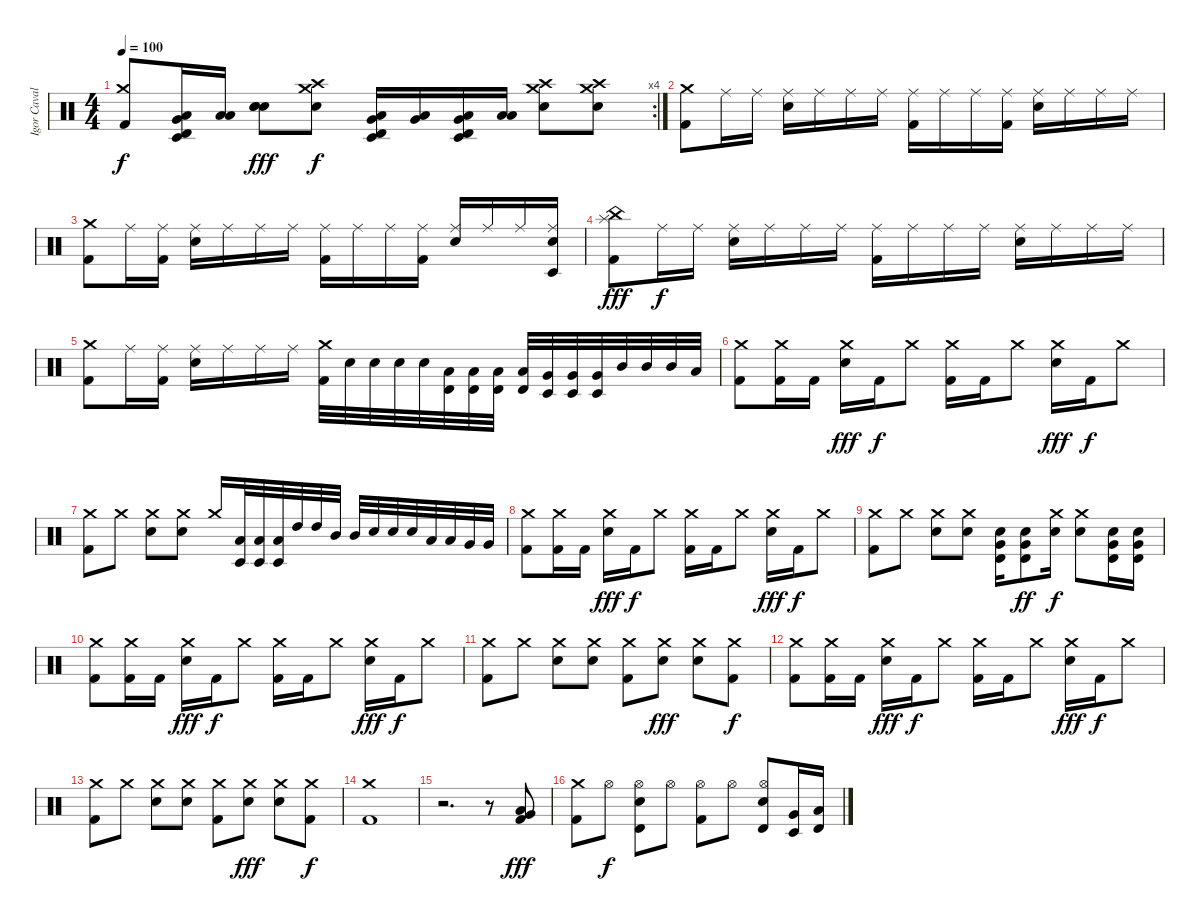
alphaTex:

\track ("Igor Cavalera" "Igor Caval") {instrument percussion}
\staff {score}
\articulation defaults
\rc 4
\ts (4 4)
\tempo 100
\clef neutral
\ks c
("Kick (hit) 2" "Crash medium (hit)").8{dy f} ("Timbale low (hit)" "Timbale high (hit)" "Low Tom (hit)" "Very Low Tom (hit)").16 ("Low Tom (hit)" "Low Tom (hit)").16 ("Electric Snare (hit)" "Electric Snare (hit)" "Electric Snare (hit)").8{dy fff} ("Electric Snare (hit)" "Crash medium (hit)" "Crash high (hit)").8{dy f} ("Timbale low (hit)" "Timbale high (hit)" "Low Tom (hit)" "Very Low Tom (hit)").16 ("Low Tom (hit)" "Very Low Tom (hit)").16 ("Timbale low (hit)" "Timbale high (hit)" "Low Tom (hit)" "Very Low Tom (hit)").16 ("Low Tom (hit)" "Low Tom (hit)").16 ("Electric Snare (hit)" "Crash medium (hit)" "Crash high (hit)").8 ("Electric Snare (hit)" "Crash medium (hit)" "Crash high (hit)").8 |
("Kick (hit) 2" "Crash medium (hit)").8 "Ride (middle)".16 "Ride (middle)".16 ("Electric Snare (hit)" "Ride (middle)").16 "Ride (middle)".16 "Ride (middle)".16 "Ride (middle)".16 ("Kick (hit) 2" "Ride (middle)").16 "Ride (middle)".16 "Ride (middle)".16 ("Kick (hit) 2" "Ride (middle)").16 ("Electric Snare (hit)" "Ride (middle)").16 "Ride (middle)".16 "Ride (middle)".16 "Ride (middle)".16 |
("Kick (hit) 2" "Crash medium (hit)").8 "Ride (middle)".16 ("Kick (hit) 2" "Ride (middle)").16 ("Electric Snare (hit)" "Ride (middle)").16 "Ride (middle)".16 "Ride (middle)".16 "Ride (middle)".16 ("Kick (hit) 2" "Ride (middle)").16 "Ride (middle)".16 "Ride (middle)".16 ("Kick (hit) 2" "Ride (middle)").16 ("Electric Snare (hit)" "Ride (middle)").16 "Ride (middle)".16 "Ride (middle)".16 ("Timbale low (hit)" "Electric Snare (hit)" "Ride (middle)").16 |
("China (hit)" "Kick (hit) 2" "Splash (hit)").8{dy fff} "Ride (middle)".16{dy f} "Ride (middle)".16 ("Electric Snare (hit)" "Ride (middle)").16 "Ride (middle)".16 "Ride (middle)".16 "Ride (middle)".16 ("Kick (hit) 2" "Ride (middle)").16 "Ride (middle)".16 "Ride (middle)".16 "Ride (middle)".16 ("Electric Snare (hit)" "Ride (middle)").16 "Ride (middle)".16 "Ride (middle)".16 "Ride (middle)".16 |
("Kick (hit) 2" "Crash medium (hit)").8 "Ride (middle)".16 ("Kick (hit) 2" "Ride (middle)").16 ("Electric Snare (hit)" "Ride (middle)").16 "Ride (middle)".16 "Ride (middle)".16 "Ride (middle)".16 ("Kick (hit) 2" "Crash medium (hit)").32 "Electric Snare (hit)".32 "Electric Snare (hit)".32 "Electric Snare (hit)".32 "Electric Snare (hit)".32 ("Low Tom (hit)" "Timbale high (hit)").32 ("Low Tom (hit)" "Timbale high (hit)").32 ("Low Tom (hit)" "Timbale high (hit)").32 ("Low Tom (hit)" "Timbale high (hit)").32 ("Very Low Tom (hit)" "Timbale low (hit)").32 ("Very Low Tom (hit)" "Timbale low (hit)").32 ("Very Low Tom (hit)" "Timbale low (hit)").32 "Mid Tom (hit)".32 "Mid Tom (hit)".32 "Mid Tom (hit)".32 "Low Tom (hit)".32 |
("Crash medium (hit)" "Kick (hit) 2").8 ("Crash medium (hit)" "Kick (hit) 2").16 "Kick (hit) 2".16 ("Crash medium (hit)" "Electric Snare (hit)").16{dy fff} "Kick (hit) 2".16{dy f} "Crash medium (hit)".8 ("Crash medium (hit)" "Kick (hit) 2").16 "Kick (hit) 2".16 "Crash medium (hit)".8 ("Crash medium (hit)" "Electric Snare (hit)").16{dy fff} "Kick (hit) 2".16{dy f} "Crash medium (hit)".8 |
("Crash medium (hit)" "Kick (hit) 2").8 "Crash medium (hit)".8 ("Crash medium (hit)" "Electric Snare (hit)").8 ("Crash medium (hit)" "Electric Snare (hit)").8 "Crash medium (hit)".16 ("Low Tom (hit)" "Timbale low (hit)").32 ("Low Tom (hit)" "Timbale low (hit)").32 ("Low Tom (hit)" "Timbale low (hit)").32 "High Tom (hit)".32 "High Tom (hit)".32 "Mid Tom (hit)".32 "Mid Tom (hit)".32 "Electric Snare (hit)".32 "Electric Snare (hit)".32 "Electric Snare (hit)".32 "Low Tom (hit)".32 "Low Tom (hit)".32 "Very Low Tom (hit)".32 "Very Low Tom (hit)".32 |
("Crash medium (hit)" "Kick (hit) 2").8 ("Crash medium (hit)" "Kick (hit) 2").16 "Kick (hit) 2".16 ("Crash medium (hit)" "Electric Snare (hit)").16{dy fff} "Kick (hit) 2".16{dy f} "Crash medium (hit)".8 ("Crash medium (hit)" "Kick (hit) 2").16 "Kick (hit) 2".16 "Crash medium (hit)".8 ("Crash medium (hit)" "Electric Snare (hit)").16{dy fff} "Kick (hit) 2".16{dy f} "Crash medium (hit)".8 |
("Crash medium (hit)" "Kick (hit) 2").8 "Crash medium (hit)".8 ("Crash medium (hit)" "Electric Snare (hit)").8 ("Crash medium (hit)" "Electric Snare (hit)").8 ("Very Low Tom (hit)" "Timbale high (hit)" "Electric Snare (hit)").16 ("Very Low Tom (hit)" "Timbale high (hit)" "Electric Snare (hit)").8{dy ff} ("Electric Snare (hit)" "Crash medium (hit)").16{dy f} ("Electric Snare (hit)" "Crash medium (hit)").8 ("Very Low Tom (hit)" "Timbale high (hit)" "Electric Snare (hit)").16 ("Very Low Tom (hit)" "Timbale high (hit)" "Electric Snare (hit)").16 |
("Crash medium (hit)" "Kick (hit) 2").8 ("Crash medium (hit)" "Kick (hit) 2").16 "Kick (hit) 2".16 ("Crash medium (hit)" "Electric Snare (hit)").16{dy fff} "Kick (hit) 2".16{dy f} "Crash medium (hit)".8 ("Crash medium (hit)" "Kick (hit) 2").16 "Kick (hit) 2".16 "Crash medium (hit)".8 ("Crash medium (hit)" "Electric Snare (hit)").16{dy fff} "Kick (hit) 2".16{dy f} "Crash medium (hit)".8 |
("Crash medium (hit)" "Kick (hit) 2").8 "Crash medium (hit)".8 ("Crash medium (hit)" "Electric Snare (hit)").8 ("Crash medium (hit)" "Electric Snare (hit)").8 ("Crash medium (hit)" "Kick (hit) 2").8 ("Crash medium (hit)" "Electric Snare (hit)").8{dy fff} ("Crash medium (hit)" "Electric Snare (hit)").8 ("Crash medium (hit)" "Kick (hit) 2").8{dy f} |
("Crash medium (hit)" "Kick (hit) 2").8 ("Crash medium (hit)" "Kick (hit) 2").16 "Kick (hit) 2".16 ("Crash medium (hit)" "Electric Snare (hit)").16{dy fff} "Kick (hit) 2".16{dy f} "Crash medium (hit)".8 ("Crash medium (hit)" "Kick (hit) 2").16 "Kick (hit) 2".16 "Crash medium (hit)".8 ("Crash medium (hit)" "Electric Snare (hit)").16{dy fff} "Kick (hit) 2".16{dy f} "Crash medium (hit)".8 |
("Crash medium (hit)" "Kick (hit) 2").8 "Crash medium (hit)".8 ("Crash medium (hit)" "Electric Snare (hit)").8 ("Crash medium (hit)" "Electric Snare (hit)").8 ("Crash medium (hit)" "Kick (hit) 2").8 ("Crash medium (hit)" "Electric Snare (hit)").8{dy fff} ("Crash medium (hit)" "Electric Snare (hit)").8 ("Crash medium (hit)" "Kick (hit) 2").8{dy f} |
("Crash medium (hit)" "Kick (hit) 2").1 |
r.2{d} r.8 ("Kick (hit) 2" "Very Low Tom (hit)" "Low Floor Tom (hit)").8{dy fff} |
("Crash medium (hit)" "Kick (hit) 2").8 "Hi-Hat (open)".8{dy f} ("Timbale high (hit)" "Electric Snare (hit)" "Hi-Hat (open)").8 "Hi-Hat (open)".8 ("Kick (hit) 2" "Hi-Hat (open)").8 "Hi-Hat (open)".8 ("Timbale high (hit)" "Electric Snare (hit)" "Hi-Hat (open)").8 ("Timbale low (hit)" "Very Low Tom (hit)").16 ("Timbale high (hit)" "Low Tom (hit)").16
